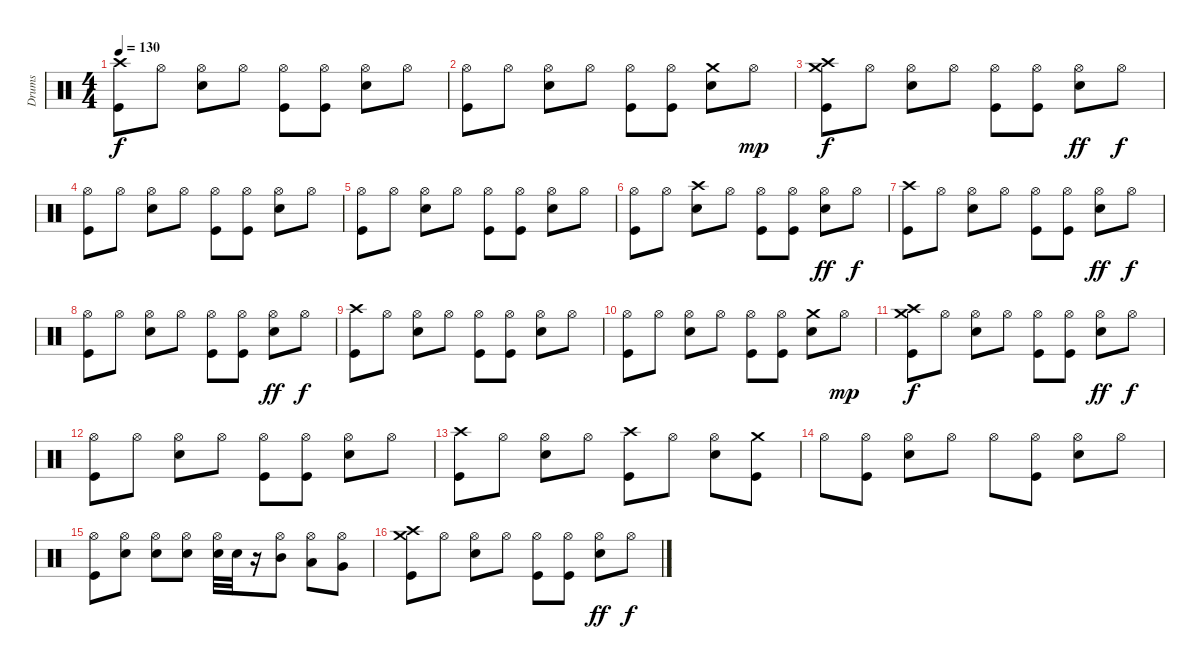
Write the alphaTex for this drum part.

\track ("Drums" "Drums") {instrument percussion}
\staff {score}
\articulation defaults
\ts (4 4)
\tempo 130
\clef neutral
\ks c
("Crash high (hit)" "Kick (hit)").8{dy f} "Hi-Hat (open)".8 ("Hi-Hat (open)" "Snare (hit) 2").8 "Hi-Hat (open)".8 ("Hi-Hat (open)" "Kick (hit)").8 ("Hi-Hat (open)" "Kick (hit)").8 ("Hi-Hat (open)" "Snare (hit) 2").8 "Hi-Hat (open)".8 |
("Hi-Hat (open)" "Kick (hit)").8 "Hi-Hat (open)".8 ("Hi-Hat (open)" "Snare (hit) 2").8 "Hi-Hat (open)".8 ("Hi-Hat (open)" "Kick (hit)").8 ("Hi-Hat (open)" "Kick (hit)").8 ("Crash medium (hit)" "Snare (hit) 2").8 "Hi-Hat (open)".8{dy mp} |
("Crash high (hit)" "Crash medium (hit)" "Kick (hit)").8{dy f} "Hi-Hat (open)".8 ("Hi-Hat (open)" "Snare (hit) 2").8 "Hi-Hat (open)".8 ("Hi-Hat (open)" "Kick (hit)").8 ("Hi-Hat (open)" "Kick (hit)").8 ("Hi-Hat (open)" "Snare (hit) 2").8{dy ff} "Hi-Hat (open)".8{dy f} |
("Hi-Hat (open)" "Kick (hit)").8 "Hi-Hat (open)".8 ("Hi-Hat (open)" "Snare (hit) 2").8 "Hi-Hat (open)".8 ("Hi-Hat (open)" "Kick (hit)").8 ("Hi-Hat (open)" "Kick (hit)").8 ("Hi-Hat (open)" "Snare (hit) 2").8 "Hi-Hat (open)".8 |
("Hi-Hat (open)" "Kick (hit)").8 "Hi-Hat (open)".8 ("Hi-Hat (open)" "Snare (hit) 2").8 "Hi-Hat (open)".8 ("Hi-Hat (open)" "Kick (hit)").8 ("Hi-Hat (open)" "Kick (hit)").8 ("Hi-Hat (open)" "Snare (hit) 2").8 "Hi-Hat (open)".8 |
("Hi-Hat (open)" "Kick (hit)").8 "Hi-Hat (open)".8 ("Crash high (hit)" "Snare (hit) 2").8 "Hi-Hat (open)".8 ("Hi-Hat (open)" "Kick (hit)").8 ("Hi-Hat (open)" "Kick (hit)").8 ("Hi-Hat (open)" "Snare (hit) 2").8{dy ff} "Hi-Hat (open)".8{dy f} |
("Crash high (hit)" "Kick (hit)").8 "Hi-Hat (open)".8 ("Hi-Hat (open)" "Snare (hit) 2").8 "Hi-Hat (open)".8 ("Hi-Hat (open)" "Kick (hit)").8 ("Hi-Hat (open)" "Kick (hit)").8 ("Hi-Hat (open)" "Snare (hit) 2").8{dy ff} "Hi-Hat (open)".8{dy f} |
("Hi-Hat (open)" "Kick (hit)").8 "Hi-Hat (open)".8 ("Hi-Hat (open)" "Snare (hit) 2").8 "Hi-Hat (open)".8 ("Hi-Hat (open)" "Kick (hit)").8 ("Hi-Hat (open)" "Kick (hit)").8 ("Hi-Hat (open)" "Snare (hit) 2").8{dy ff} "Hi-Hat (open)".8{dy f} |
("Crash high (hit)" "Kick (hit)").8 "Hi-Hat (open)".8 ("Hi-Hat (open)" "Snare (hit) 2").8 "Hi-Hat (open)".8 ("Hi-Hat (open)" "Kick (hit)").8 ("Hi-Hat (open)" "Kick (hit)").8 ("Hi-Hat (open)" "Snare (hit) 2").8 "Hi-Hat (open)".8 |
("Hi-Hat (open)" "Kick (hit)").8 "Hi-Hat (open)".8 ("Hi-Hat (open)" "Snare (hit) 2").8 "Hi-Hat (open)".8 ("Hi-Hat (open)" "Kick (hit)").8 ("Hi-Hat (open)" "Kick (hit)").8 ("Crash medium (hit)" "Snare (hit) 2").8 "Hi-Hat (open)".8{dy mp} |
("Crash high (hit)" "Crash medium (hit)" "Kick (hit)").8{dy f} "Hi-Hat (open)".8 ("Hi-Hat (open)" "Snare (hit) 2").8 "Hi-Hat (open)".8 ("Hi-Hat (open)" "Kick (hit)").8 ("Hi-Hat (open)" "Kick (hit)").8 ("Hi-Hat (open)" "Snare (hit) 2").8{dy ff} "Hi-Hat (open)".8{dy f} |
("Hi-Hat (open)" "Kick (hit)").8 "Hi-Hat (open)".8 ("Hi-Hat (open)" "Snare (hit) 2").8 "Hi-Hat (open)".8 ("Hi-Hat (open)" "Kick (hit)").8 ("Hi-Hat (open)" "Kick (hit)").8 ("Hi-Hat (open)" "Snare (hit) 2").8 "Hi-Hat (open)".8 |
("Crash high (hit)" "Kick (hit)").8 "Hi-Hat (open)".8 ("Hi-Hat (open)" "Snare (hit) 2").8 "Hi-Hat (open)".8 ("Crash high (hit)" "Kick (hit)").8 "Hi-Hat (open)".8 ("Hi-Hat (open)" "Snare (hit) 2").8 ("Crash medium (hit)" "Kick (hit)").8 |
"Hi-Hat (open)".8 ("Hi-Hat (open)" "Kick (hit)").8 ("Hi-Hat (open)" "Snare (hit) 2").8 "Hi-Hat (open)".8 "Hi-Hat (open)".8 ("Hi-Hat (open)" "Kick (hit)").8 ("Hi-Hat (open)" "Snare (hit) 2").8 "Hi-Hat (open)".8 |
("Hi-Hat (open)" "Kick (hit)").8 ("Hi-Hat (open)" "Snare (hit) 2").8 ("Hi-Hat (open)" "Snare (hit) 2").8 ("Hi-Hat (open)" "Snare (hit) 2").8 ("Hi-Hat (open)" "Snare (hit) 2").32 "Snare (hit) 2".32 r.16 ("Hi-Hat (open)" "Mid Tom (hit)").8 ("Hi-Hat (open)" "Low Tom (hit)").8 ("Hi-Hat (open)" "Very Low Tom (hit)").8 |
("Crash high (hit)" "Crash medium (hit)" "Kick (hit)").8 "Hi-Hat (open)".8 ("Hi-Hat (open)" "Snare (hit) 2").8 "Hi-Hat (open)".8 ("Hi-Hat (open)" "Kick (hit)").8 ("Hi-Hat (open)" "Kick (hit)").8 ("Hi-Hat (open)" "Snare (hit) 2").8{dy ff} "Hi-Hat (open)".8{dy f}
